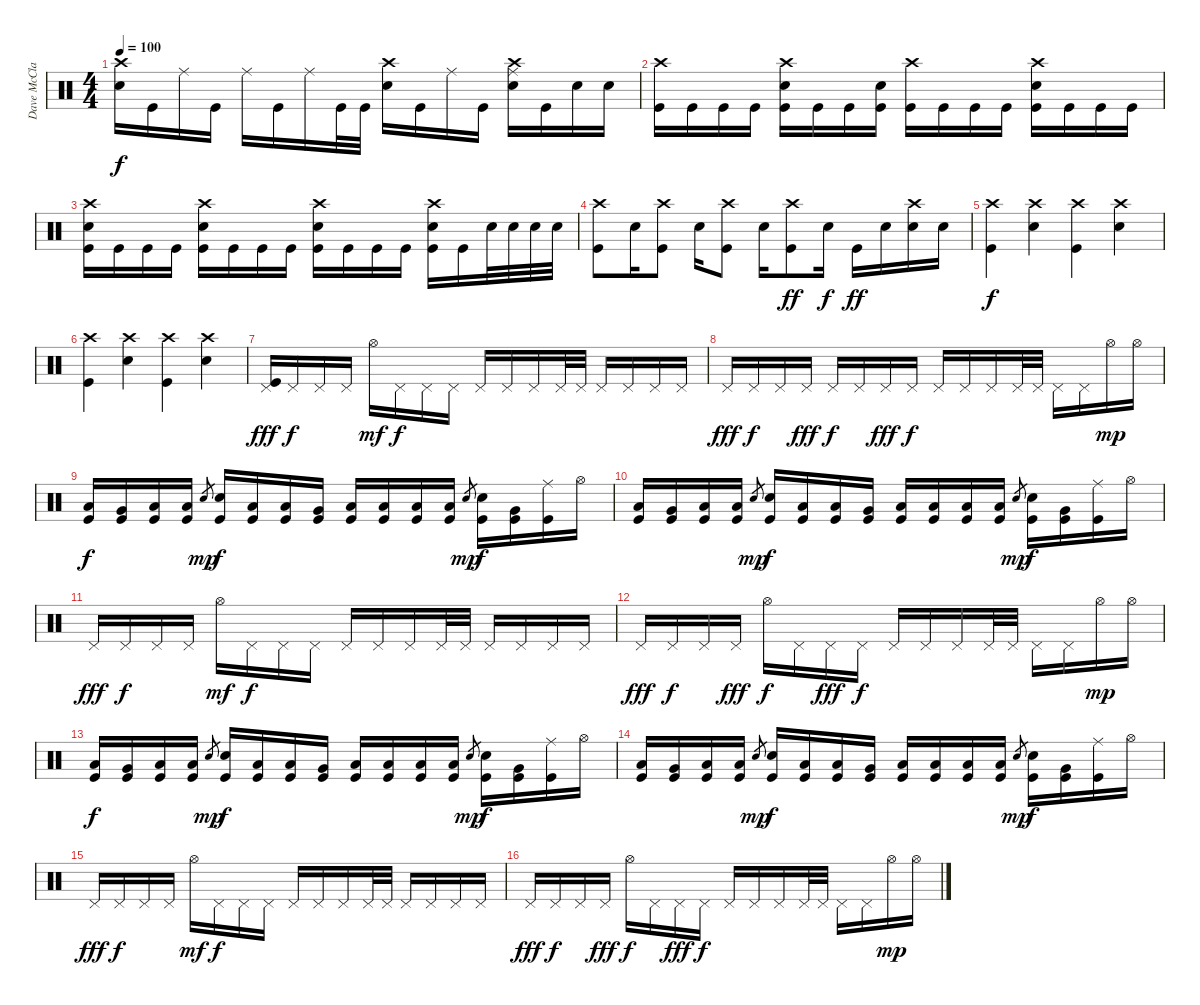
\track ("Dave McClain" "Dave McCla") {instrument percussion}
\staff {score}
\articulation defaults
\ts (4 4)
\tempo 100
\clef neutral
\ks c
("Crash high (hit)" "Snare (hit) 2").16{dy f} "Kick (hit)".16 "Ride (middle)".16 "Kick (hit)".16 "Ride (middle)".16 "Kick (hit)".16 "Ride (middle)".16 "Kick (hit)".32 "Kick (hit)".32 ("Crash high (hit)" "Snare (hit) 2").16 "Kick (hit)".16 "Ride (middle)".16 "Kick (hit)".16 ("Crash high (hit)" "Ride (middle)" "Snare (hit) 2").16 "Kick (hit)".16 "Snare (hit) 2".16 "Snare (hit) 2".16 |
("Crash high (hit)" "Kick (hit)").16 "Kick (hit)".16 "Kick (hit)".16 "Kick (hit)".16 ("Crash high (hit)" "Snare (hit) 2" "Kick (hit)").16 "Kick (hit)".16 "Kick (hit)".16 ("Snare (hit) 2" "Kick (hit)").16 ("Crash high (hit)" "Kick (hit)").16 "Kick (hit)".16 "Kick (hit)".16 "Kick (hit)".16 ("Crash high (hit)" "Snare (hit) 2" "Kick (hit)").16 "Kick (hit)".16 "Kick (hit)".16 "Kick (hit)".16 |
("Crash high (hit)" "Snare (hit) 2" "Kick (hit)").16 "Kick (hit)".16 "Kick (hit)".16 "Kick (hit)".16 ("Crash high (hit)" "Snare (hit) 2" "Kick (hit)").16 "Kick (hit)".16 "Kick (hit)".16 "Kick (hit)".16 ("Crash high (hit)" "Snare (hit) 2" "Kick (hit)").16 "Kick (hit)".16 "Kick (hit)".16 "Kick (hit)".16 ("Crash high (hit)" "Snare (hit) 2" "Kick (hit)").16 "Kick (hit)".16 "Snare (hit) 2".32 "Snare (hit) 2".32 "Snare (hit) 2".32 "Snare (hit) 2".32 |
("Crash high (hit)" "Kick (hit)").8 "Snare (hit) 2".16 ("Crash high (hit)" "Kick (hit)").8 "Snare (hit) 2".16 ("Crash high (hit)" "Kick (hit)").8 "Snare (hit) 2".16 ("Crash high (hit)" "Kick (hit)").8{dy ff} "Snare (hit) 2".16{dy f} "Kick (hit)".16{dy ff} "Snare (hit) 2".16 ("Crash high (hit)" "Snare (hit) 2").16 "Snare (hit) 2".16 |
("Crash high (hit)" "Kick (hit)").4{dy f} ("Crash high (hit)" "Snare (hit) 2").4 ("Crash high (hit)" "Kick (hit)").4 ("Crash high (hit)" "Snare (hit) 2").4 |
("Crash high (hit)" "Kick (hit)").4 ("Crash high (hit)" "Snare (hit) 2").4 ("Crash high (hit)" "Kick (hit)").4 ("Crash high (hit)" "Snare (hit) 2").4 |
("Pedal Hi-Hat (hit)" "Kick (hit)").16{dy fff} "Pedal Hi-Hat (hit)".16{dy f} "Pedal Hi-Hat (hit)".16 "Pedal Hi-Hat (hit)".16 "Hi-Hat (open)".16{dy mf} "Pedal Hi-Hat (hit)".16{dy f} "Pedal Hi-Hat (hit)".16 "Pedal Hi-Hat (hit)".16 "Pedal Hi-Hat (hit)".16 "Pedal Hi-Hat (hit)".16 "Pedal Hi-Hat (hit)".16 "Pedal Hi-Hat (hit)".32 "Pedal Hi-Hat (hit)".32 "Pedal Hi-Hat (hit)".16 "Pedal Hi-Hat (hit)".16 "Pedal Hi-Hat (hit)".16 "Pedal Hi-Hat (hit)".16 |
"Pedal Hi-Hat (hit)".16{dy fff} "Pedal Hi-Hat (hit)".16{dy f} "Pedal Hi-Hat (hit)".16 "Pedal Hi-Hat (hit)".16{dy fff} "Pedal Hi-Hat (hit)".16{dy f} "Pedal Hi-Hat (hit)".16 "Pedal Hi-Hat (hit)".16{dy fff} "Pedal Hi-Hat (hit)".16{dy f} "Pedal Hi-Hat (hit)".16 "Pedal Hi-Hat (hit)".16 "Pedal Hi-Hat (hit)".16 "Pedal Hi-Hat (hit)".32 "Pedal Hi-Hat (hit)".32 "Pedal Hi-Hat (hit)".16 "Pedal Hi-Hat (hit)".16 "Hi-Hat (open)".16{dy mp} "Hi-Hat (open)".16 |
("Low Tom (hit)" "Kick (hit)").16{dy f} ("Very Low Tom (hit)" "Kick (hit)").16 ("Low Floor Tom (hit)" "Kick (hit)").16 ("Low Floor Tom (hit)" "Kick (hit)").16 "Snare (hit) 2".8{gr dy mp} ("Snare (hit) 2" "Kick (hit)").16{dy f} ("Low Floor Tom (hit)" "Kick (hit)").16 ("Low Tom (hit)" "Kick (hit)").16 ("Very Low Tom (hit)" "Kick (hit)").16 ("Low Floor Tom (hit)" "Kick (hit)").16 ("Low Floor Tom (hit)" "Kick (hit)").16 ("Low Floor Tom (hit)" "Kick (hit)").16 ("Low Floor Tom (hit)" "Kick (hit)").16 "Snare (hit) 2".8{gr dy mp} ("Snare (hit) 2" "Kick (hit)").16{dy f} ("Very Low Tom (hit)" "Kick (hit)").16 ("Ride (middle)" "Kick (hit)").16 "Hi-Hat (open)".16 |
("Low Tom (hit)" "Kick (hit)").16 ("Very Low Tom (hit)" "Kick (hit)").16 ("Low Floor Tom (hit)" "Kick (hit)").16 ("Low Floor Tom (hit)" "Kick (hit)").16 "Snare (hit) 2".8{gr dy mp} ("Snare (hit) 2" "Kick (hit)").16{dy f} ("Low Floor Tom (hit)" "Kick (hit)").16 ("Low Tom (hit)" "Kick (hit)").16 ("Very Low Tom (hit)" "Kick (hit)").16 ("Low Floor Tom (hit)" "Kick (hit)").16 ("Low Floor Tom (hit)" "Kick (hit)").16 ("Low Floor Tom (hit)" "Kick (hit)").16 ("Low Floor Tom (hit)" "Kick (hit)").16 "Snare (hit) 2".8{gr dy mp} ("Snare (hit) 2" "Kick (hit)").16{dy f} ("Very Low Tom (hit)" "Kick (hit)").16 ("Ride (middle)" "Kick (hit)").16 "Hi-Hat (open)".16 |
"Pedal Hi-Hat (hit)".16{dy fff} "Pedal Hi-Hat (hit)".16{dy f} "Pedal Hi-Hat (hit)".16 "Pedal Hi-Hat (hit)".16 "Hi-Hat (open)".16{dy mf} "Pedal Hi-Hat (hit)".16{dy f} "Pedal Hi-Hat (hit)".16 "Pedal Hi-Hat (hit)".16 "Pedal Hi-Hat (hit)".16 "Pedal Hi-Hat (hit)".16 "Pedal Hi-Hat (hit)".16 "Pedal Hi-Hat (hit)".32 "Pedal Hi-Hat (hit)".32 "Pedal Hi-Hat (hit)".16 "Pedal Hi-Hat (hit)".16 "Pedal Hi-Hat (hit)".16 "Pedal Hi-Hat (hit)".16 |
"Pedal Hi-Hat (hit)".16{dy fff} "Pedal Hi-Hat (hit)".16{dy f} "Pedal Hi-Hat (hit)".16 "Pedal Hi-Hat (hit)".16{dy fff} "Hi-Hat (open)".16{dy f} "Pedal Hi-Hat (hit)".16 "Pedal Hi-Hat (hit)".16{dy fff} "Pedal Hi-Hat (hit)".16{dy f} "Pedal Hi-Hat (hit)".16 "Pedal Hi-Hat (hit)".16 "Pedal Hi-Hat (hit)".16 "Pedal Hi-Hat (hit)".32 "Pedal Hi-Hat (hit)".32 "Pedal Hi-Hat (hit)".16 "Pedal Hi-Hat (hit)".16 "Hi-Hat (open)".16{dy mp} "Hi-Hat (open)".16 |
("Low Tom (hit)" "Kick (hit)").16{dy f} ("Very Low Tom (hit)" "Kick (hit)").16 ("Low Floor Tom (hit)" "Kick (hit)").16 ("Low Floor Tom (hit)" "Kick (hit)").16 "Snare (hit) 2".8{gr dy mp} ("Snare (hit) 2" "Kick (hit)").16{dy f} ("Low Floor Tom (hit)" "Kick (hit)").16 ("Low Tom (hit)" "Kick (hit)").16 ("Very Low Tom (hit)" "Kick (hit)").16 ("Low Floor Tom (hit)" "Kick (hit)").16 ("Low Floor Tom (hit)" "Kick (hit)").16 ("Low Floor Tom (hit)" "Kick (hit)").16 ("Low Floor Tom (hit)" "Kick (hit)").16 "Snare (hit) 2".8{gr dy mp} ("Snare (hit) 2" "Kick (hit)").16{dy f} ("Very Low Tom (hit)" "Kick (hit)").16 ("Ride (middle)" "Kick (hit)").16 "Hi-Hat (open)".16 |
("Low Tom (hit)" "Kick (hit)").16 ("Very Low Tom (hit)" "Kick (hit)").16 ("Low Floor Tom (hit)" "Kick (hit)").16 ("Low Floor Tom (hit)" "Kick (hit)").16 "Snare (hit) 2".8{gr dy mp} ("Snare (hit) 2" "Kick (hit)").16{dy f} ("Low Floor Tom (hit)" "Kick (hit)").16 ("Low Tom (hit)" "Kick (hit)").16 ("Very Low Tom (hit)" "Kick (hit)").16 ("Low Floor Tom (hit)" "Kick (hit)").16 ("Low Floor Tom (hit)" "Kick (hit)").16 ("Low Floor Tom (hit)" "Kick (hit)").16 ("Low Floor Tom (hit)" "Kick (hit)").16 "Snare (hit) 2".8{gr dy mp} ("Snare (hit) 2" "Kick (hit)").16{dy f} ("Very Low Tom (hit)" "Kick (hit)").16 ("Ride (middle)" "Kick (hit)").16 "Hi-Hat (open)".16 |
"Pedal Hi-Hat (hit)".16{dy fff} "Pedal Hi-Hat (hit)".16{dy f} "Pedal Hi-Hat (hit)".16 "Pedal Hi-Hat (hit)".16 "Hi-Hat (open)".16{dy mf} "Pedal Hi-Hat (hit)".16{dy f} "Pedal Hi-Hat (hit)".16 "Pedal Hi-Hat (hit)".16 "Pedal Hi-Hat (hit)".16 "Pedal Hi-Hat (hit)".16 "Pedal Hi-Hat (hit)".16 "Pedal Hi-Hat (hit)".32 "Pedal Hi-Hat (hit)".32 "Pedal Hi-Hat (hit)".16 "Pedal Hi-Hat (hit)".16 "Pedal Hi-Hat (hit)".16 "Pedal Hi-Hat (hit)".16 |
"Pedal Hi-Hat (hit)".16{dy fff} "Pedal Hi-Hat (hit)".16{dy f} "Pedal Hi-Hat (hit)".16 "Pedal Hi-Hat (hit)".16{dy fff} "Hi-Hat (open)".16{dy f} "Pedal Hi-Hat (hit)".16 "Pedal Hi-Hat (hit)".16{dy fff} "Pedal Hi-Hat (hit)".16{dy f} "Pedal Hi-Hat (hit)".16 "Pedal Hi-Hat (hit)".16 "Pedal Hi-Hat (hit)".16 "Pedal Hi-Hat (hit)".32 "Pedal Hi-Hat (hit)".32 "Pedal Hi-Hat (hit)".16 "Pedal Hi-Hat (hit)".16 "Hi-Hat (open)".16{dy mp} "Hi-Hat (open)".16
